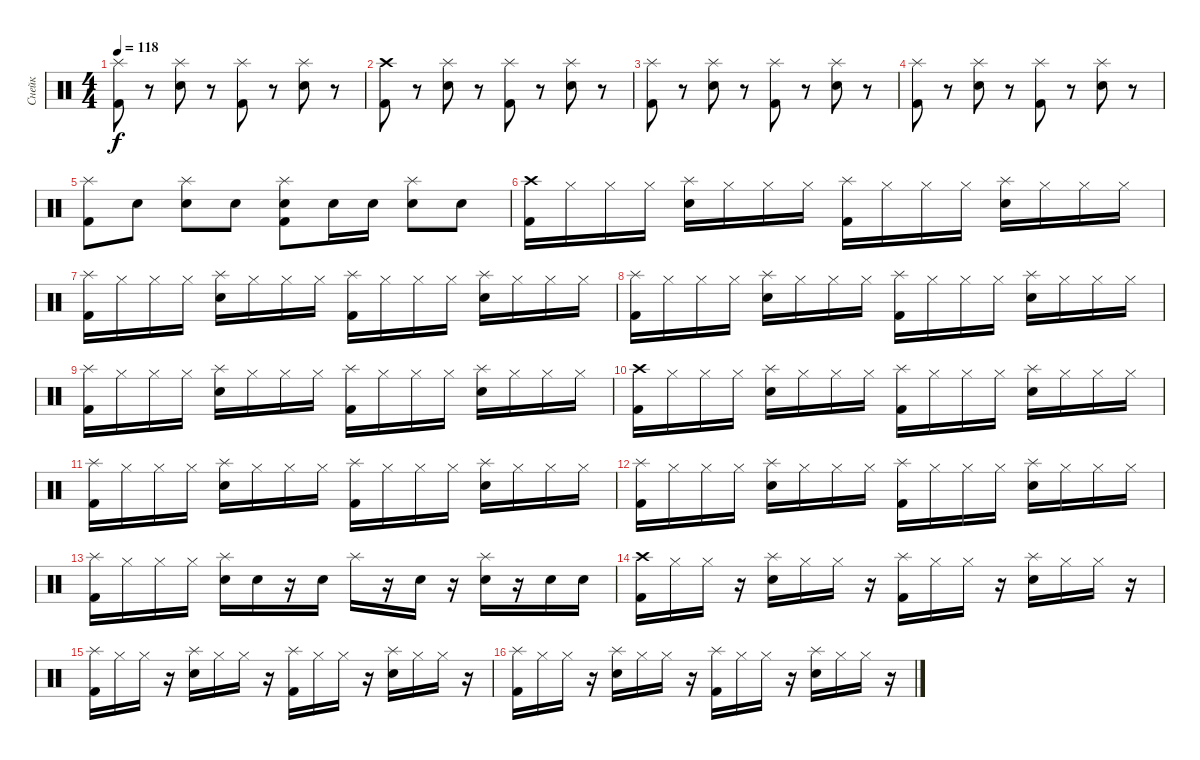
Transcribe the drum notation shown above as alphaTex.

\track ("Снейк" "Снейк") {instrument percussion}
\staff {score}
\articulation defaults
\ts (4 4)
\tempo 118
\clef neutral
\ks c
("Splash (hit)" "Kick (hit) 2").8{dy f} r.8 ("Splash (hit)" "Electric Snare (hit)").8 r.8 ("Splash (hit)" "Kick (hit) 2").8 r.8 ("Splash (hit)" "Electric Snare (hit)").8 r.8 |
("Crash high (hit)" "Kick (hit) 2").8 r.8 ("Splash (hit)" "Electric Snare (hit)").8 r.8 ("Splash (hit)" "Kick (hit) 2").8 r.8 ("Splash (hit)" "Electric Snare (hit)").8 r.8 |
("Splash (hit)" "Kick (hit) 2").8 r.8 ("Splash (hit)" "Electric Snare (hit)").8 r.8 ("Splash (hit)" "Kick (hit) 2").8 r.8 ("Splash (hit)" "Electric Snare (hit)").8 r.8 |
("Splash (hit)" "Kick (hit) 2").8 r.8 ("Splash (hit)" "Electric Snare (hit)").8 r.8 ("Splash (hit)" "Kick (hit) 2").8 r.8 ("Splash (hit)" "Electric Snare (hit)").8 r.8 |
("Splash (hit)" "Kick (hit) 2").8 "Electric Snare (hit)".8 ("Splash (hit)" "Electric Snare (hit)").8 "Electric Snare (hit)".8 ("Splash (hit)" "Electric Snare (hit)" "Kick (hit) 2").8 "Electric Snare (hit)".16 "Electric Snare (hit)".16 ("Splash (hit)" "Electric Snare (hit)").8 "Electric Snare (hit)".8 |
("Crash high (hit)" "Kick (hit) 2").16 "Hi-Hat (closed)".16 "Hi-Hat (closed)".16 "Hi-Hat (closed)".16 ("Splash (hit)" "Electric Snare (hit)").16 "Hi-Hat (closed)".16 "Hi-Hat (closed)".16 "Hi-Hat (closed)".16 ("Splash (hit)" "Kick (hit) 2").16 "Hi-Hat (closed)".16 "Hi-Hat (closed)".16 "Hi-Hat (closed)".16 ("Splash (hit)" "Electric Snare (hit)").16 "Hi-Hat (closed)".16 "Hi-Hat (closed)".16 "Hi-Hat (closed)".16 |
("Splash (hit)" "Kick (hit) 2").16 "Hi-Hat (closed)".16 "Hi-Hat (closed)".16 "Hi-Hat (closed)".16 ("Splash (hit)" "Electric Snare (hit)").16 "Hi-Hat (closed)".16 "Hi-Hat (closed)".16 "Hi-Hat (closed)".16 ("Splash (hit)" "Kick (hit) 2").16 "Hi-Hat (closed)".16 "Hi-Hat (closed)".16 "Hi-Hat (closed)".16 ("Splash (hit)" "Electric Snare (hit)").16 "Hi-Hat (closed)".16 "Hi-Hat (closed)".16 "Hi-Hat (closed)".16 |
("Splash (hit)" "Kick (hit) 2").16 "Hi-Hat (closed)".16 "Hi-Hat (closed)".16 "Hi-Hat (closed)".16 ("Splash (hit)" "Electric Snare (hit)").16 "Hi-Hat (closed)".16 "Hi-Hat (closed)".16 "Hi-Hat (closed)".16 ("Splash (hit)" "Kick (hit) 2").16 "Hi-Hat (closed)".16 "Hi-Hat (closed)".16 "Hi-Hat (closed)".16 ("Splash (hit)" "Electric Snare (hit)").16 "Hi-Hat (closed)".16 "Hi-Hat (closed)".16 "Hi-Hat (closed)".16 |
("Splash (hit)" "Kick (hit) 2").16 "Hi-Hat (closed)".16 "Hi-Hat (closed)".16 "Hi-Hat (closed)".16 ("Splash (hit)" "Electric Snare (hit)").16 "Hi-Hat (closed)".16 "Hi-Hat (closed)".16 "Hi-Hat (closed)".16 ("Splash (hit)" "Kick (hit) 2").16 "Hi-Hat (closed)".16 "Hi-Hat (closed)".16 "Hi-Hat (closed)".16 ("Splash (hit)" "Electric Snare (hit)").16 "Hi-Hat (closed)".16 "Hi-Hat (closed)".16 "Hi-Hat (closed)".16 |
("Crash high (hit)" "Kick (hit) 2").16 "Hi-Hat (closed)".16 "Hi-Hat (closed)".16 "Hi-Hat (closed)".16 ("Splash (hit)" "Electric Snare (hit)").16 "Hi-Hat (closed)".16 "Hi-Hat (closed)".16 "Hi-Hat (closed)".16 ("Splash (hit)" "Kick (hit) 2").16 "Hi-Hat (closed)".16 "Hi-Hat (closed)".16 "Hi-Hat (closed)".16 ("Splash (hit)" "Electric Snare (hit)").16 "Hi-Hat (closed)".16 "Hi-Hat (closed)".16 "Hi-Hat (closed)".16 |
("Splash (hit)" "Kick (hit) 2").16 "Hi-Hat (closed)".16 "Hi-Hat (closed)".16 "Hi-Hat (closed)".16 ("Splash (hit)" "Electric Snare (hit)").16 "Hi-Hat (closed)".16 "Hi-Hat (closed)".16 "Hi-Hat (closed)".16 ("Splash (hit)" "Kick (hit) 2").16 "Hi-Hat (closed)".16 "Hi-Hat (closed)".16 "Hi-Hat (closed)".16 ("Splash (hit)" "Electric Snare (hit)").16 "Hi-Hat (closed)".16 "Hi-Hat (closed)".16 "Hi-Hat (closed)".16 |
("Splash (hit)" "Kick (hit) 2").16 "Hi-Hat (closed)".16 "Hi-Hat (closed)".16 "Hi-Hat (closed)".16 ("Splash (hit)" "Electric Snare (hit)").16 "Hi-Hat (closed)".16 "Hi-Hat (closed)".16 "Hi-Hat (closed)".16 ("Splash (hit)" "Kick (hit) 2").16 "Hi-Hat (closed)".16 "Hi-Hat (closed)".16 "Hi-Hat (closed)".16 ("Splash (hit)" "Electric Snare (hit)").16 "Hi-Hat (closed)".16 "Hi-Hat (closed)".16 "Hi-Hat (closed)".16 |
("Splash (hit)" "Kick (hit) 2").16 "Hi-Hat (closed)".16 "Hi-Hat (closed)".16 "Hi-Hat (closed)".16 ("Splash (hit)" "Electric Snare (hit)").16 "Electric Snare (hit)".16 r.16 "Electric Snare (hit)".16 "Splash (hit)".16 r.16 "Electric Snare (hit)".16 r.16 ("Splash (hit)" "Electric Snare (hit)").16 r.16 "Electric Snare (hit)".16 "Electric Snare (hit)".16 |
("Crash high (hit)" "Kick (hit) 2").16 "Hi-Hat (closed)".16 "Hi-Hat (closed)".16 r.16 ("Splash (hit)" "Electric Snare (hit)").16 "Hi-Hat (closed)".16 "Hi-Hat (closed)".16 r.16 ("Splash (hit)" "Kick (hit) 2").16 "Hi-Hat (closed)".16 "Hi-Hat (closed)".16 r.16 ("Splash (hit)" "Electric Snare (hit)").16 "Hi-Hat (closed)".16 "Hi-Hat (closed)".16 r.16 |
("Splash (hit)" "Kick (hit) 2").16 "Hi-Hat (closed)".16 "Hi-Hat (closed)".16 r.16 ("Splash (hit)" "Electric Snare (hit)").16 "Hi-Hat (closed)".16 "Hi-Hat (closed)".16 r.16 ("Splash (hit)" "Kick (hit) 2").16 "Hi-Hat (closed)".16 "Hi-Hat (closed)".16 r.16 ("Splash (hit)" "Electric Snare (hit)").16 "Hi-Hat (closed)".16 "Hi-Hat (closed)".16 r.16 |
("Splash (hit)" "Kick (hit) 2").16 "Hi-Hat (closed)".16 "Hi-Hat (closed)".16 r.16 ("Splash (hit)" "Electric Snare (hit)").16 "Hi-Hat (closed)".16 "Hi-Hat (closed)".16 r.16 ("Splash (hit)" "Kick (hit) 2").16 "Hi-Hat (closed)".16 "Hi-Hat (closed)".16 r.16 ("Splash (hit)" "Electric Snare (hit)").16 "Hi-Hat (closed)".16 "Hi-Hat (closed)".16 r.16
